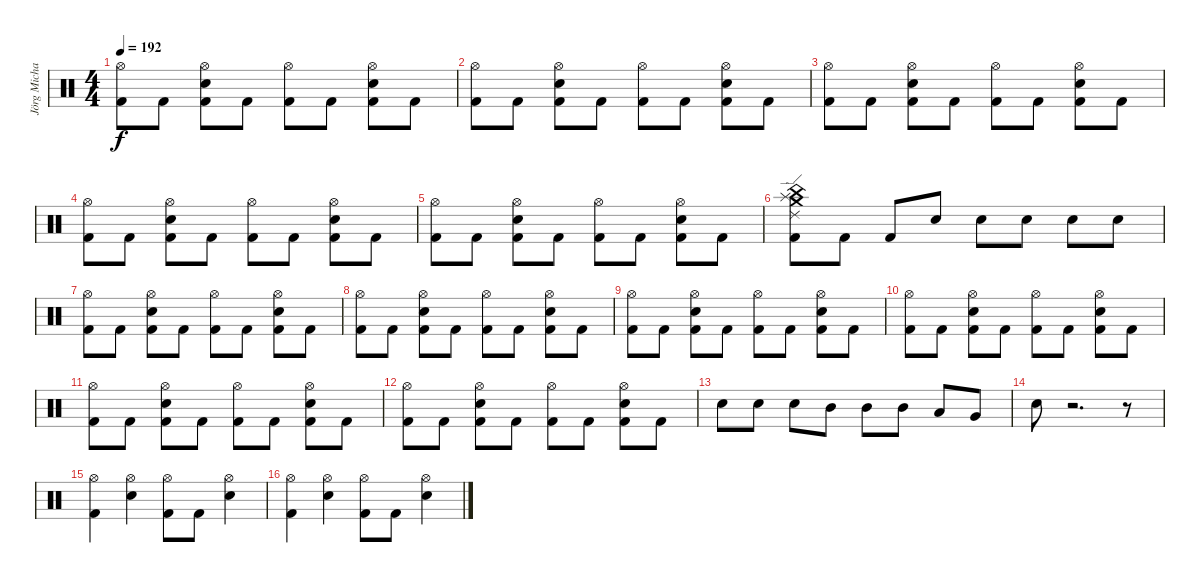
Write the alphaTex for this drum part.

\track ("Jörg Michael" "Jörg Micha") {instrument percussion}
\staff {score}
\articulation defaults
\ts (4 4)
\tempo 192
\clef neutral
\ks c
("Hi-Hat (open)" "Kick (hit) 2").8{dy f} "Kick (hit) 2".8 ("Electric Snare (hit)" "Hi-Hat (open)" "Kick (hit) 2").8 "Kick (hit) 2".8 ("Hi-Hat (open)" "Kick (hit) 2").8 "Kick (hit) 2".8 ("Electric Snare (hit)" "Hi-Hat (open)" "Kick (hit) 2").8 "Kick (hit) 2".8 |
("Hi-Hat (open)" "Kick (hit) 2").8 "Kick (hit) 2".8 ("Electric Snare (hit)" "Hi-Hat (open)" "Kick (hit) 2").8 "Kick (hit) 2".8 ("Hi-Hat (open)" "Kick (hit) 2").8 "Kick (hit) 2".8 ("Electric Snare (hit)" "Hi-Hat (open)" "Kick (hit) 2").8 "Kick (hit) 2".8 |
("Hi-Hat (open)" "Kick (hit) 2").8 "Kick (hit) 2".8 ("Electric Snare (hit)" "Hi-Hat (open)" "Kick (hit) 2").8 "Kick (hit) 2".8 ("Hi-Hat (open)" "Kick (hit) 2").8 "Kick (hit) 2".8 ("Electric Snare (hit)" "Hi-Hat (open)" "Kick (hit) 2").8 "Kick (hit) 2".8 |
("Hi-Hat (open)" "Kick (hit) 2").8 "Kick (hit) 2".8 ("Electric Snare (hit)" "Hi-Hat (open)" "Kick (hit) 2").8 "Kick (hit) 2".8 ("Hi-Hat (open)" "Kick (hit) 2").8 "Kick (hit) 2".8 ("Electric Snare (hit)" "Hi-Hat (open)" "Kick (hit) 2").8 "Kick (hit) 2".8 |
("Hi-Hat (open)" "Kick (hit) 2").8 "Kick (hit) 2".8 ("Electric Snare (hit)" "Hi-Hat (open)" "Kick (hit) 2").8 "Kick (hit) 2".8 ("Hi-Hat (open)" "Kick (hit) 2").8 "Kick (hit) 2".8 ("Electric Snare (hit)" "Hi-Hat (open)" "Kick (hit) 2").8 "Kick (hit) 2".8 |
("Ride (edge) 2" "Crash medium (hit)" "Splash (hit)" "China (hit)" "Kick (hit) 2").8 "Kick (hit) 2".8 "Kick (hit) 2".8 "Electric Snare (hit)".8{volume 6} "Electric Snare (hit)".8{volume 7} "Electric Snare (hit)".8{volume 8} "Electric Snare (hit)".8{volume 9} "Electric Snare (hit)".8{volume 10} |
("Hi-Hat (open)" "Kick (hit) 2").8{volume 11} "Kick (hit) 2".8 ("Electric Snare (hit)" "Hi-Hat (open)" "Kick (hit) 2").8 "Kick (hit) 2".8 ("Hi-Hat (open)" "Kick (hit) 2").8 "Kick (hit) 2".8 ("Electric Snare (hit)" "Hi-Hat (open)" "Kick (hit) 2").8 "Kick (hit) 2".8 |
("Hi-Hat (open)" "Kick (hit) 2").8 "Kick (hit) 2".8 ("Electric Snare (hit)" "Hi-Hat (open)" "Kick (hit) 2").8 "Kick (hit) 2".8 ("Hi-Hat (open)" "Kick (hit) 2").8 "Kick (hit) 2".8 ("Electric Snare (hit)" "Hi-Hat (open)" "Kick (hit) 2").8 "Kick (hit) 2".8 |
("Hi-Hat (open)" "Kick (hit) 2").8 "Kick (hit) 2".8 ("Electric Snare (hit)" "Hi-Hat (open)" "Kick (hit) 2").8 "Kick (hit) 2".8 ("Hi-Hat (open)" "Kick (hit) 2").8 "Kick (hit) 2".8 ("Electric Snare (hit)" "Hi-Hat (open)" "Kick (hit) 2").8 "Kick (hit) 2".8 |
("Hi-Hat (open)" "Kick (hit) 2").8 "Kick (hit) 2".8 ("Electric Snare (hit)" "Hi-Hat (open)" "Kick (hit) 2").8 "Kick (hit) 2".8 ("Hi-Hat (open)" "Kick (hit) 2").8 "Kick (hit) 2".8 ("Electric Snare (hit)" "Hi-Hat (open)" "Kick (hit) 2").8 "Kick (hit) 2".8 |
("Hi-Hat (open)" "Kick (hit) 2").8 "Kick (hit) 2".8 ("Electric Snare (hit)" "Hi-Hat (open)" "Kick (hit) 2").8 "Kick (hit) 2".8 ("Hi-Hat (open)" "Kick (hit) 2").8 "Kick (hit) 2".8 ("Electric Snare (hit)" "Hi-Hat (open)" "Kick (hit) 2").8 "Kick (hit) 2".8 |
("Hi-Hat (open)" "Kick (hit) 2").8 "Kick (hit) 2".8 ("Electric Snare (hit)" "Hi-Hat (open)" "Kick (hit) 2").8 "Kick (hit) 2".8 ("Hi-Hat (open)" "Kick (hit) 2").8 "Kick (hit) 2".8 ("Electric Snare (hit)" "Hi-Hat (open)" "Kick (hit) 2").8 "Kick (hit) 2".8 |
"Electric Snare (hit)".8 "Electric Snare (hit)".8 "Electric Snare (hit)".8 "Mid Tom (hit)".8 "Mid Tom (hit)".8 "Mid Tom (hit)".8 "Low Tom (hit)".8 "Very Low Tom (hit)".8 |
"Electric Snare (hit)".8 r.2{d} r.8 |
("Hi-Hat (open)" "Kick (hit) 2").4 ("Hi-Hat (open)" "Electric Snare (hit)").4 ("Hi-Hat (open)" "Kick (hit) 2").8 "Kick (hit) 2".8 ("Hi-Hat (open)" "Electric Snare (hit)").4 |
("Hi-Hat (open)" "Kick (hit) 2").4 ("Hi-Hat (open)" "Electric Snare (hit)").4 ("Hi-Hat (open)" "Kick (hit) 2").8 "Kick (hit) 2".8 ("Hi-Hat (open)" "Electric Snare (hit)").4
